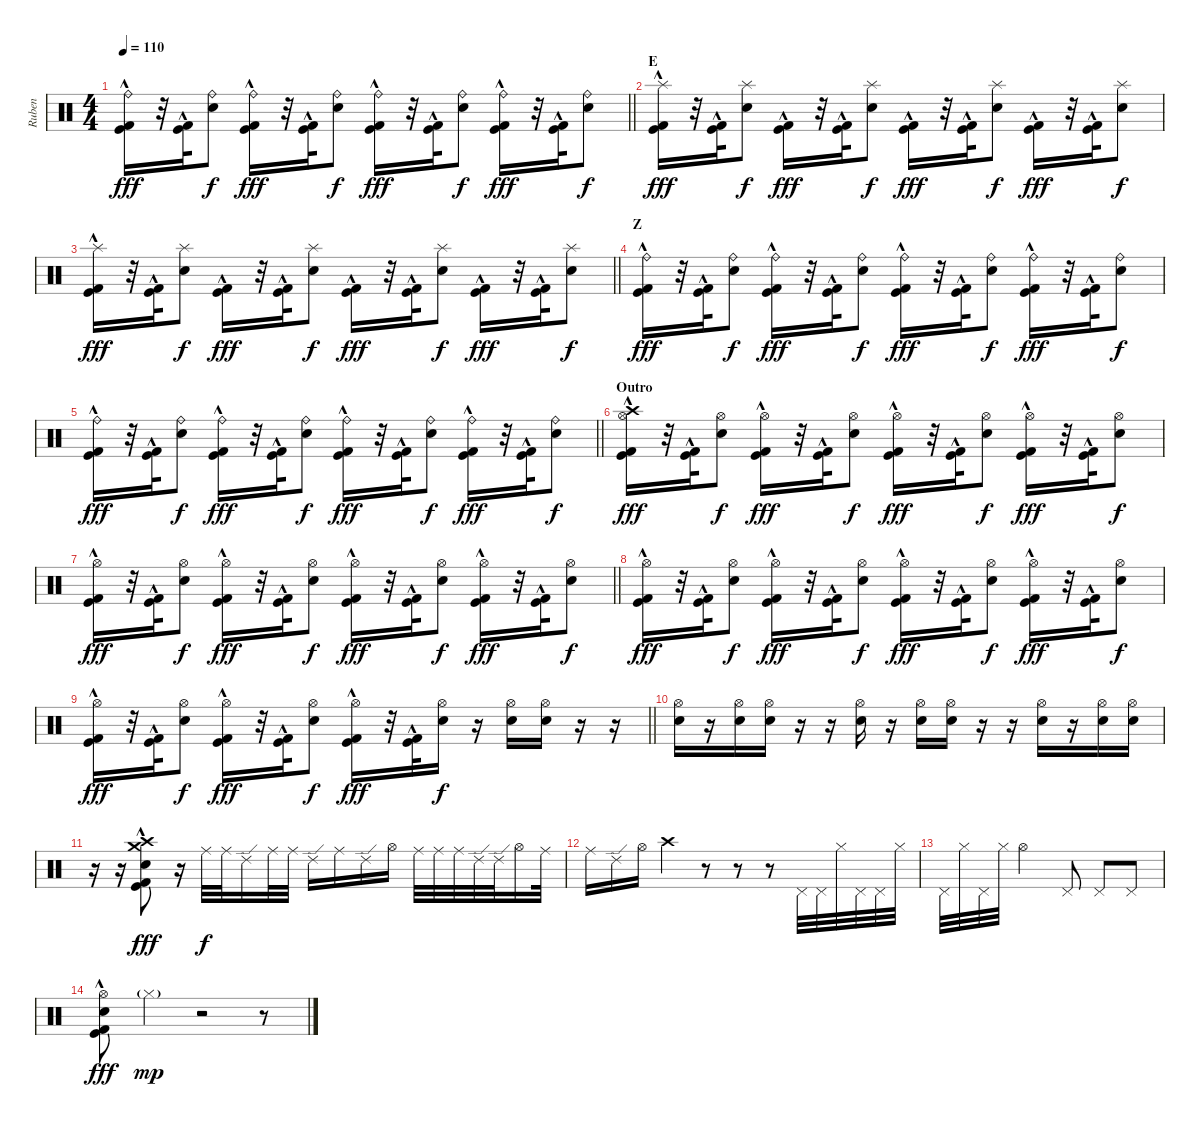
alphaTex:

\track ("Ruben" "Ruben") {instrument percussion}
\staff {score}
\articulation defaults
\ts (4 4)
\tempo 110
\clef neutral
\barLineRight lightlight
\ks c
("Ride (bell)" "Kick (hit)"{hac} "Kick (hit) 2"{hac}).16{dy fff} r.32 ("Kick (hit)"{hac} "Kick (hit) 2"{hac}).32 ("Ride (bell)" "Snare (hit) 2").8{dy f} ("Ride (bell)" "Kick (hit)"{hac} "Kick (hit) 2"{hac}).16{dy fff} r.32 ("Kick (hit)"{hac} "Kick (hit) 2"{hac}).32 ("Ride (bell)" "Snare (hit) 2").8{dy f} ("Ride (bell)" "Kick (hit)"{hac} "Kick (hit) 2"{hac}).16{dy fff} r.32 ("Kick (hit)"{hac} "Kick (hit) 2"{hac}).32 ("Ride (bell)" "Snare (hit) 2").8{dy f} ("Ride (bell)" "Kick (hit)"{hac} "Kick (hit) 2"{hac}).16{dy fff} r.32 ("Kick (hit)"{hac} "Kick (hit) 2"{hac}).32 ("Ride (bell)" "Snare (hit) 2").8{dy f} |
\section ("" "E")
("Splash (hit)" "Kick (hit)"{hac} "Kick (hit) 2"{hac}).16{dy fff} r.32 ("Kick (hit)"{hac} "Kick (hit) 2"{hac}).32 ("Splash (hit)" "Snare (hit) 2").8{dy f} ("Kick (hit)"{hac} "Kick (hit) 2"{hac}).16{dy fff} r.32 ("Kick (hit)"{hac} "Kick (hit) 2"{hac}).32 ("Splash (hit)" "Snare (hit) 2").8{dy f} ("Kick (hit)"{hac} "Kick (hit) 2"{hac}).16{dy fff} r.32 ("Kick (hit)"{hac} "Kick (hit) 2"{hac}).32 ("Splash (hit)" "Snare (hit) 2").8{dy f} ("Kick (hit)"{hac} "Kick (hit) 2"{hac}).16{dy fff} r.32 ("Kick (hit)"{hac} "Kick (hit) 2"{hac}).32 ("Splash (hit)" "Snare (hit) 2").8{dy f} |
\barLineRight lightlight
("Splash (hit)" "Kick (hit)"{hac} "Kick (hit) 2"{hac}).16{dy fff} r.32 ("Kick (hit)"{hac} "Kick (hit) 2"{hac}).32 ("Splash (hit)" "Snare (hit) 2").8{dy f} ("Kick (hit)"{hac} "Kick (hit) 2"{hac}).16{dy fff} r.32 ("Kick (hit)"{hac} "Kick (hit) 2"{hac}).32 ("Splash (hit)" "Snare (hit) 2").8{dy f} ("Kick (hit)"{hac} "Kick (hit) 2"{hac}).16{dy fff} r.32 ("Kick (hit)"{hac} "Kick (hit) 2"{hac}).32 ("Splash (hit)" "Snare (hit) 2").8{dy f} ("Kick (hit)"{hac} "Kick (hit) 2"{hac}).16{dy fff} r.32 ("Kick (hit)"{hac} "Kick (hit) 2"{hac}).32 ("Splash (hit)" "Snare (hit) 2").8{dy f} |
\section ("" "Z")
("Ride (bell)" "Kick (hit)"{hac} "Kick (hit) 2"{hac}).16{dy fff} r.32 ("Kick (hit)"{hac} "Kick (hit) 2"{hac}).32 ("Ride (bell)" "Snare (hit) 2").8{dy f} ("Ride (bell)" "Kick (hit)"{hac} "Kick (hit) 2"{hac}).16{dy fff} r.32 ("Kick (hit)"{hac} "Kick (hit) 2"{hac}).32 ("Ride (bell)" "Snare (hit) 2").8{dy f} ("Ride (bell)" "Kick (hit)"{hac} "Kick (hit) 2"{hac}).16{dy fff} r.32 ("Kick (hit)"{hac} "Kick (hit) 2"{hac}).32 ("Ride (bell)" "Snare (hit) 2").8{dy f} ("Ride (bell)" "Kick (hit)"{hac} "Kick (hit) 2"{hac}).16{dy fff} r.32 ("Kick (hit)"{hac} "Kick (hit) 2"{hac}).32 ("Ride (bell)" "Snare (hit) 2").8{dy f} |
\barLineRight lightlight
("Ride (bell)" "Kick (hit)"{hac} "Kick (hit) 2"{hac}).16{dy fff} r.32 ("Kick (hit)"{hac} "Kick (hit) 2"{hac}).32 ("Ride (bell)" "Snare (hit) 2").8{dy f} ("Ride (bell)" "Kick (hit)"{hac} "Kick (hit) 2"{hac}).16{dy fff} r.32 ("Kick (hit)"{hac} "Kick (hit) 2"{hac}).32 ("Ride (bell)" "Snare (hit) 2").8{dy f} ("Ride (bell)" "Kick (hit)"{hac} "Kick (hit) 2"{hac}).16{dy fff} r.32 ("Kick (hit)"{hac} "Kick (hit) 2"{hac}).32 ("Ride (bell)" "Snare (hit) 2").8{dy f} ("Ride (bell)" "Kick (hit)"{hac} "Kick (hit) 2"{hac}).16{dy fff} r.32 ("Kick (hit)"{hac} "Kick (hit) 2"{hac}).32 ("Ride (bell)" "Snare (hit) 2").8{dy f} |
\section ("" "Outro")
("Hi-Hat (open)" "Crash high (hit)" "Kick (hit)"{hac} "Kick (hit) 2"{hac}).16{dy fff} r.32 ("Kick (hit)"{hac} "Kick (hit) 2"{hac}).32 ("Hi-Hat (open)" "Snare (hit) 2").8{dy f} ("Hi-Hat (open)" "Kick (hit)"{hac} "Kick (hit) 2"{hac}).16{dy fff} r.32 ("Kick (hit)"{hac} "Kick (hit) 2"{hac}).32 ("Hi-Hat (open)" "Snare (hit) 2").8{dy f} ("Hi-Hat (open)" "Kick (hit)"{hac} "Kick (hit) 2"{hac}).16{dy fff} r.32 ("Kick (hit)"{hac} "Kick (hit) 2"{hac}).32 ("Hi-Hat (open)" "Snare (hit) 2").8{dy f} ("Hi-Hat (open)" "Kick (hit)"{hac} "Kick (hit) 2"{hac}).16{dy fff} r.32 ("Kick (hit)"{hac} "Kick (hit) 2"{hac}).32 ("Hi-Hat (open)" "Snare (hit) 2").8{dy f} |
\barLineRight lightlight
("Hi-Hat (open)" "Kick (hit)"{hac} "Kick (hit) 2"{hac}).16{dy fff} r.32 ("Kick (hit)"{hac} "Kick (hit) 2"{hac}).32 ("Hi-Hat (open)" "Snare (hit) 2").8{dy f} ("Hi-Hat (open)" "Kick (hit)"{hac} "Kick (hit) 2"{hac}).16{dy fff} r.32 ("Kick (hit)"{hac} "Kick (hit) 2"{hac}).32 ("Hi-Hat (open)" "Snare (hit) 2").8{dy f} ("Hi-Hat (open)" "Kick (hit)"{hac} "Kick (hit) 2"{hac}).16{dy fff} r.32 ("Kick (hit)"{hac} "Kick (hit) 2"{hac}).32 ("Hi-Hat (open)" "Snare (hit) 2").8{dy f} ("Hi-Hat (open)" "Kick (hit)"{hac} "Kick (hit) 2"{hac}).16{dy fff} r.32 ("Kick (hit)"{hac} "Kick (hit) 2"{hac}).32 ("Hi-Hat (open)" "Snare (hit) 2").8{dy f} |
("Hi-Hat (open)" "Kick (hit)"{hac} "Kick (hit) 2"{hac}).16{dy fff} r.32 ("Kick (hit)"{hac} "Kick (hit) 2"{hac}).32 ("Hi-Hat (open)" "Snare (hit) 2").8{dy f} ("Hi-Hat (open)" "Kick (hit)"{hac} "Kick (hit) 2"{hac}).16{dy fff} r.32 ("Kick (hit)"{hac} "Kick (hit) 2"{hac}).32 ("Hi-Hat (open)" "Snare (hit) 2").8{dy f} ("Hi-Hat (open)" "Kick (hit)"{hac} "Kick (hit) 2"{hac}).16{dy fff} r.32 ("Kick (hit)"{hac} "Kick (hit) 2"{hac}).32 ("Hi-Hat (open)" "Snare (hit) 2").8{dy f} ("Hi-Hat (open)" "Kick (hit)"{hac} "Kick (hit) 2"{hac}).16{dy fff} r.32 ("Kick (hit)"{hac} "Kick (hit) 2"{hac}).32 ("Hi-Hat (open)" "Snare (hit) 2").8{dy f} |
\barLineRight lightlight
("Hi-Hat (open)" "Kick (hit)"{hac} "Kick (hit) 2"{hac}).16{dy fff} r.32 ("Kick (hit)"{hac} "Kick (hit) 2"{hac}).32 ("Hi-Hat (open)" "Snare (hit) 2").8{dy f} ("Hi-Hat (open)" "Kick (hit)"{hac} "Kick (hit) 2"{hac}).16{dy fff} r.32 ("Kick (hit)"{hac} "Kick (hit) 2"{hac}).32 ("Hi-Hat (open)" "Snare (hit) 2").8{dy f} ("Hi-Hat (open)" "Kick (hit)"{hac} "Kick (hit) 2"{hac}).16{dy fff} r.32 ("Kick (hit)"{hac} "Kick (hit) 2"{hac}).32 ("Hi-Hat (open)" "Snare (hit) 2").16{dy f} r.16 ("Hi-Hat (open)" "Snare (hit) 2").16 ("Hi-Hat (open)" "Snare (hit) 2").16 r.16 r.16 |
("Hi-Hat (open)" "Snare (hit) 2").16 r.16 ("Hi-Hat (open)" "Snare (hit) 2").16 ("Hi-Hat (open)" "Snare (hit) 2").16 r.16 r.16 ("Hi-Hat (open)" "Snare (hit) 2").16 r.16 ("Hi-Hat (open)" "Snare (hit) 2").16 ("Hi-Hat (open)" "Snare (hit) 2").16 r.16 r.16 ("Hi-Hat (open)" "Snare (hit) 2").16 r.16 ("Hi-Hat (open)" "Snare (hit) 2").16 ("Hi-Hat (open)" "Snare (hit) 2").16 |
r.16 r.16 ("Crash medium (hit)" "Crash high (hit)" "Snare (hit) 2" "Kick (hit)"{hac} "Kick (hit) 2"{hac}).8{dy fff} r.16 "Ride (middle)".32{dy f} "Ride (middle)".32 "Ride (edge) 2".16 "Ride (middle)".32 "Ride (middle)".32 "Ride (edge) 2".16 "Ride (middle)".16 "Ride (edge) 2".16 "Hi-Hat (open)".16 "Ride (middle)".32 "Ride (middle)".32 "Ride (middle)".32 "Ride (edge) 2".32 "Ride (edge) 2".32 "Hi-Hat (open)".16 "Ride (middle)".32 |
"Ride (middle)".16 "Ride (edge) 2".16 "Hi-Hat (open)".16 "Crash high (hit)".4 r.8 r.8 r.8 "Pedal Hi-Hat (hit)".32 "Pedal Hi-Hat (hit)".32 "Hi-Hat (closed)".32 "Pedal Hi-Hat (hit)".32 "Pedal Hi-Hat (hit)".32 "Hi-Hat (closed)".32 |
"Pedal Hi-Hat (hit)".32 "Hi-Hat (closed)".32 "Pedal Hi-Hat (hit)".32 "Hi-Hat (closed)".32 "Hi-Hat (open)".2 "Pedal Hi-Hat (hit)".8 "Pedal Hi-Hat (hit)".8 "Pedal Hi-Hat (hit)".8 |
("Hi-Hat (open)" "Snare (hit) 2"{hac} "Kick (hit)"{hac} "Kick (hit) 2"{hac}).8{dy fff} "Hi-Hat (closed)"{g}.4{dy mp} r.2 r.8
